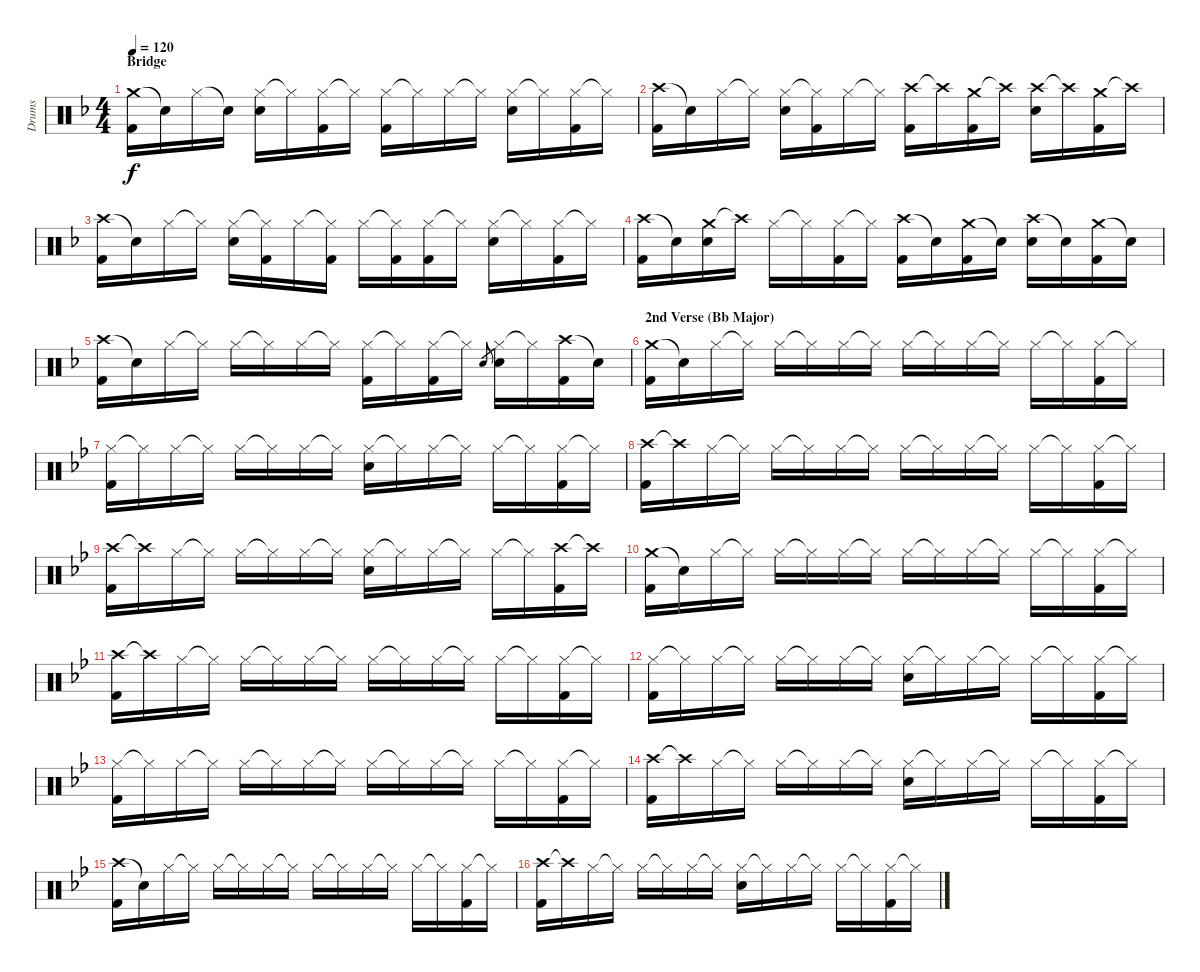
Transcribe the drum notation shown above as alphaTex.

\track ("Drums" "Drums") {instrument percussion}
\staff {score}
\articulation defaults
\ts (4 4)
\section ("" "Bridge")
\tempo 120
\clef neutral
\ks f
("Crash medium (hit)" "Kick (hit) 2").16{dy f} "Snare (hit)"{t}.16 "Hi-Hat (closed)".16 "Snare (hit)"{t}.16 ("Hi-Hat (closed)" "Snare (hit) 2").16 "Hi-Hat (closed)"{t}.16 ("Hi-Hat (closed)" "Kick (hit) 2").16 "Hi-Hat (closed)"{t}.16 ("Hi-Hat (closed)" "Kick (hit) 2").16 "Hi-Hat (closed)"{t}.16 "Hi-Hat (closed)".16 "Hi-Hat (closed)"{t}.16 ("Hi-Hat (closed)" "Snare (hit) 2").16 "Hi-Hat (closed)"{t}.16 ("Hi-Hat (closed)" "Kick (hit) 2").16 "Hi-Hat (closed)"{t}.16 |
("Crash high (hit)" "Kick (hit) 2").16 "Snare (hit)"{t}.16 "Hi-Hat (closed)".16 "Hi-Hat (closed)"{t}.16 ("Hi-Hat (closed)" "Snare (hit) 2").16 ("Hi-Hat (closed)"{t} "Kick (hit) 2").16 "Hi-Hat (closed)".16 "Hi-Hat (closed)"{t}.16 ("Crash high (hit)" "Kick (hit) 2").16 "Crash high (hit)"{t}.16 ("Crash medium (hit)" "Kick (hit) 2").16 "Crash high (hit)"{t}.16 ("Crash high (hit)" "Snare (hit) 2").16 "Crash high (hit)"{t}.16 ("Crash medium (hit)" "Kick (hit) 2").16 "Crash high (hit)"{t}.16 |
("Crash high (hit)" "Kick (hit) 2").16 "Snare (hit)"{t}.16 "Hi-Hat (closed)".16 "Hi-Hat (closed)"{t}.16 ("Hi-Hat (closed)" "Snare (hit) 2").16 ("Hi-Hat (closed)"{t} "Kick (hit) 2").16 "Hi-Hat (closed)".16 ("Hi-Hat (closed)"{t} "Kick (hit) 2").16 "Hi-Hat (closed)".16 ("Hi-Hat (closed)"{t} "Kick (hit) 2").16 ("Hi-Hat (closed)" "Kick (hit) 2").16 "Hi-Hat (closed)"{t}.16 ("Hi-Hat (closed)" "Snare (hit) 2").16 "Hi-Hat (closed)"{t}.16 ("Hi-Hat (closed)" "Kick (hit) 2").16 "Hi-Hat (closed)"{t}.16 |
("Crash high (hit)" "Kick (hit) 2").16 "Snare (hit)"{t}.16 ("Crash medium (hit)" "Snare (hit) 2").16 "Crash high (hit)"{t}.16 "Hi-Hat (closed)".16 "Hi-Hat (closed)"{t}.16 ("Hi-Hat (closed)" "Kick (hit) 2").16 "Hi-Hat (closed)"{t}.16 ("Crash high (hit)" "Kick (hit) 2").16 "Snare (hit)"{t}.16 ("Crash medium (hit)" "Kick (hit) 2").16 "Snare (hit)"{t}.16 ("Crash high (hit)" "Snare (hit) 2").16 "Snare (hit)"{t}.16 ("Crash medium (hit)" "Kick (hit) 2").16 "Snare (hit)"{t}.16 |
("Crash high (hit)" "Kick (hit) 2").16 "Snare (hit)"{t}.16 "Hi-Hat (closed)".16 "Hi-Hat (closed)"{t}.16 "Hi-Hat (closed)".16 "Hi-Hat (closed)"{t}.16 "Hi-Hat (closed)".16 "Hi-Hat (closed)"{t}.16 ("Hi-Hat (closed)" "Kick (hit) 2").16 "Hi-Hat (closed)"{t}.16 ("Hi-Hat (closed)" "Kick (hit) 2").16 "Hi-Hat (closed)"{t}.16 "Snare (hit) 2".8{gr} ("Hi-Hat (closed)" "Snare (hit) 2").16 "Hi-Hat (closed)"{t}.16 ("Crash high (hit)" "Kick (hit) 2").16 "Snare (hit)"{t}.16 |
\section ("" "2nd Verse (Bb Major)")
("Crash medium (hit)" "Kick (hit) 2").16 "Snare (hit)"{t}.16 "Hi-Hat (closed)".16 "Hi-Hat (closed)"{t}.16 "Hi-Hat (closed)".16 "Hi-Hat (closed)"{t}.16 "Hi-Hat (closed)".16 "Hi-Hat (closed)"{t}.16 "Hi-Hat (closed)".16 "Hi-Hat (closed)"{t}.16 "Hi-Hat (closed)".16 "Hi-Hat (closed)"{t}.16 "Hi-Hat (closed)".16 "Hi-Hat (closed)"{t}.16 ("Hi-Hat (closed)" "Kick (hit) 2").16 "Hi-Hat (closed)"{t}.16 |
\ks bb
("Hi-Hat (closed)" "Kick (hit) 2").16 "Hi-Hat (closed)"{t}.16 "Hi-Hat (closed)".16 "Hi-Hat (closed)"{t}.16 "Hi-Hat (closed)".16 "Hi-Hat (closed)"{t}.16 "Hi-Hat (closed)".16 "Hi-Hat (closed)"{t}.16 ("Hi-Hat (closed)" "Snare (hit) 2").16 "Hi-Hat (closed)"{t}.16 "Hi-Hat (closed)".16 "Hi-Hat (closed)"{t}.16 "Hi-Hat (closed)".16 "Hi-Hat (closed)"{t}.16 ("Hi-Hat (closed)" "Kick (hit) 2").16 "Hi-Hat (closed)"{t}.16 |
("Crash high (hit)" "Kick (hit) 2").16 "Crash high (hit)"{t}.16 "Hi-Hat (closed)".16 "Hi-Hat (closed)"{t}.16 "Hi-Hat (closed)".16 "Hi-Hat (closed)"{t}.16 "Hi-Hat (closed)".16 "Hi-Hat (closed)"{t}.16 "Hi-Hat (closed)".16 "Hi-Hat (closed)"{t}.16 "Hi-Hat (closed)".16 "Hi-Hat (closed)"{t}.16 "Hi-Hat (closed)".16 "Hi-Hat (closed)"{t}.16 ("Hi-Hat (closed)" "Kick (hit) 2").16 "Hi-Hat (closed)"{t}.16 |
("Crash high (hit)" "Kick (hit) 2").16 "Crash high (hit)"{t}.16 "Hi-Hat (closed)".16 "Hi-Hat (closed)"{t}.16 "Hi-Hat (closed)".16 "Hi-Hat (closed)"{t}.16 "Hi-Hat (closed)".16 "Hi-Hat (closed)"{t}.16 ("Hi-Hat (closed)" "Snare (hit) 2").16 "Hi-Hat (closed)"{t}.16 "Hi-Hat (closed)".16 "Hi-Hat (closed)"{t}.16 "Hi-Hat (closed)".16 "Hi-Hat (closed)"{t}.16 ("Crash high (hit)" "Kick (hit) 2").16 "Crash high (hit)"{t}.16 |
("Crash medium (hit)" "Kick (hit) 2").16 "Snare (hit)"{t}.16 "Hi-Hat (closed)".16 "Hi-Hat (closed)"{t}.16 "Hi-Hat (closed)".16 "Hi-Hat (closed)"{t}.16 "Hi-Hat (closed)".16 "Hi-Hat (closed)"{t}.16 "Hi-Hat (closed)".16 "Hi-Hat (closed)"{t}.16 "Hi-Hat (closed)".16 "Hi-Hat (closed)"{t}.16 "Hi-Hat (closed)".16 "Hi-Hat (closed)"{t}.16 ("Hi-Hat (closed)" "Kick (hit) 2").16 "Hi-Hat (closed)"{t}.16 |
("Crash high (hit)" "Kick (hit) 2").16 "Crash high (hit)"{t}.16 "Hi-Hat (closed)".16 "Hi-Hat (closed)"{t}.16 "Hi-Hat (closed)".16 "Hi-Hat (closed)"{t}.16 "Hi-Hat (closed)".16 "Hi-Hat (closed)"{t}.16 "Hi-Hat (closed)".16 "Hi-Hat (closed)"{t}.16 "Hi-Hat (closed)".16 "Hi-Hat (closed)"{t}.16 "Hi-Hat (closed)".16 "Hi-Hat (closed)"{t}.16 ("Hi-Hat (closed)" "Kick (hit) 2").16 "Hi-Hat (closed)"{t}.16 |
("Hi-Hat (closed)" "Kick (hit) 2").16 "Hi-Hat (closed)"{t}.16 "Hi-Hat (closed)".16 "Hi-Hat (closed)"{t}.16 "Hi-Hat (closed)".16 "Hi-Hat (closed)"{t}.16 "Hi-Hat (closed)".16 "Hi-Hat (closed)"{t}.16 ("Hi-Hat (closed)" "Snare (hit) 2").16 "Hi-Hat (closed)"{t}.16 "Hi-Hat (closed)".16 "Hi-Hat (closed)"{t}.16 "Hi-Hat (closed)".16 "Hi-Hat (closed)"{t}.16 ("Hi-Hat (closed)" "Kick (hit) 2").16 "Hi-Hat (closed)"{t}.16 |
("Hi-Hat (closed)" "Kick (hit) 2").16 "Hi-Hat (closed)"{t}.16 "Hi-Hat (closed)".16 "Hi-Hat (closed)"{t}.16 "Hi-Hat (closed)".16 "Hi-Hat (closed)"{t}.16 "Hi-Hat (closed)".16 "Hi-Hat (closed)"{t}.16 "Hi-Hat (closed)".16 "Hi-Hat (closed)"{t}.16 "Hi-Hat (closed)".16 "Hi-Hat (closed)"{t}.16 "Hi-Hat (closed)".16 "Hi-Hat (closed)"{t}.16 ("Hi-Hat (closed)" "Kick (hit) 2").16 "Hi-Hat (closed)"{t}.16 |
("Crash high (hit)" "Kick (hit) 2").16 "Crash high (hit)"{t}.16 "Hi-Hat (closed)".16 "Hi-Hat (closed)"{t}.16 "Hi-Hat (closed)".16 "Hi-Hat (closed)"{t}.16 "Hi-Hat (closed)".16 "Hi-Hat (closed)"{t}.16 ("Hi-Hat (closed)" "Snare (hit) 2").16 "Hi-Hat (closed)"{t}.16 "Hi-Hat (closed)".16 "Hi-Hat (closed)"{t}.16 "Hi-Hat (closed)".16 "Hi-Hat (closed)"{t}.16 ("Hi-Hat (closed)" "Kick (hit) 2").16 "Hi-Hat (closed)"{t}.16 |
("Crash high (hit)" "Kick (hit) 2").16 "Snare (hit)"{t}.16 "Hi-Hat (closed)".16 "Hi-Hat (closed)"{t}.16 "Hi-Hat (closed)".16 "Hi-Hat (closed)"{t}.16 "Hi-Hat (closed)".16 "Hi-Hat (closed)"{t}.16 "Hi-Hat (closed)".16 "Hi-Hat (closed)"{t}.16 "Hi-Hat (closed)".16 "Hi-Hat (closed)"{t}.16 "Hi-Hat (closed)".16 "Hi-Hat (closed)"{t}.16 ("Hi-Hat (closed)" "Kick (hit) 2").16 "Hi-Hat (closed)"{t}.16 |
("Crash high (hit)" "Kick (hit) 2").16 "Crash high (hit)"{t}.16 "Hi-Hat (closed)".16 "Hi-Hat (closed)"{t}.16 "Hi-Hat (closed)".16 "Hi-Hat (closed)"{t}.16 "Hi-Hat (closed)".16 "Hi-Hat (closed)"{t}.16 ("Hi-Hat (closed)" "Snare (hit) 2").16 "Hi-Hat (closed)"{t}.16 "Hi-Hat (closed)".16 "Hi-Hat (closed)"{t}.16 "Hi-Hat (closed)".16 "Hi-Hat (closed)"{t}.16 ("Hi-Hat (closed)" "Kick (hit) 2").16 "Hi-Hat (closed)"{t}.16
